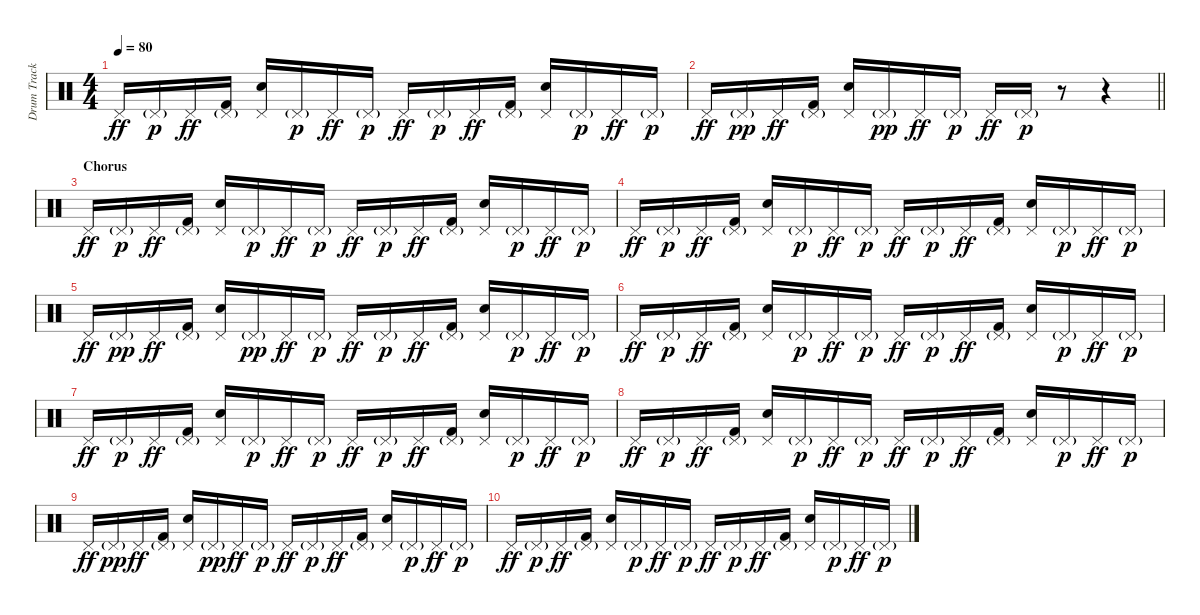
\track ("Drum Track" "Drum Track") {instrument percussion}
\staff {score}
\articulation defaults
\ts (4 4)
\tempo 80
\clef neutral
\ks c "Pedal Hi-Hat (hit)".16{dy ff} "Pedal Hi-Hat (hit)"{g}.16{dy p} "Pedal Hi-Hat (hit)".16{dy ff}
("Pedal Hi-Hat (hit)"{g} "Kick (hit) 2").16 ("Pedal Hi-Hat (hit)" "Electric Snare (hit)").16 "Pedal Hi-Hat (hit)"{g}.16{dy p} "Pedal Hi-Hat (hit)".16{dy ff} "Pedal Hi-Hat (hit)"{g}.16{dy p} "Pedal Hi-Hat (hit)".16{dy ff} "Pedal Hi-Hat (hit)"{g}.16{dy p} "Pedal Hi-Hat (hit)".16{dy ff} ("Pedal Hi-Hat (hit)"{g} "Kick (hit) 2").16 ("Pedal Hi-Hat (hit)" "Electric Snare (hit)").16 "Pedal Hi-Hat (hit)"{g}.16{dy p} "Pedal Hi-Hat (hit)".16{dy ff} "Pedal Hi-Hat (hit)"{g}.16{dy p} |
\barLineRight lightlight "Pedal Hi-Hat (hit)".16{dy ff} "Pedal Hi-Hat (hit)"{g}.16{dy pp} "Pedal Hi-Hat (hit)".16{dy ff}
("Pedal Hi-Hat (hit)"{g} "Kick (hit) 2").16 ("Pedal Hi-Hat (hit)" "Electric Snare (hit)").16 "Pedal Hi-Hat (hit)"{g}.16{dy pp} "Pedal Hi-Hat (hit)".16{dy ff} "Pedal Hi-Hat (hit)"{g}.16{dy p} "Pedal Hi-Hat (hit)".16{dy ff} "Pedal Hi-Hat (hit)"{g}.16{dy p} r.8 r.4 |
\section ("" "Chorus")
"Pedal Hi-Hat (hit)".16{dy ff} "Pedal Hi-Hat (hit)"{g}.16{dy p} "Pedal Hi-Hat (hit)".16{dy ff} ("Pedal Hi-Hat (hit)"{g} "Kick (hit) 2").16 ("Pedal Hi-Hat (hit)" "Electric Snare (hit)").16 "Pedal Hi-Hat (hit)"{g}.16{dy p} "Pedal Hi-Hat (hit)".16{dy ff} "Pedal Hi-Hat (hit)"{g}.16{dy p} "Pedal Hi-Hat (hit)".16{dy ff} "Pedal Hi-Hat (hit)"{g}.16{dy p} "Pedal Hi-Hat (hit)".16{dy ff} ("Pedal Hi-Hat (hit)"{g} "Kick (hit) 2").16 ("Pedal Hi-Hat (hit)" "Electric Snare (hit)").16 "Pedal Hi-Hat (hit)"{g}.16{dy p} "Pedal Hi-Hat (hit)".16{dy ff} "Pedal Hi-Hat (hit)"{g}.16{dy p} |
"Pedal Hi-Hat (hit)".16{dy ff} "Pedal Hi-Hat (hit)"{g}.16{dy p} "Pedal Hi-Hat (hit)".16{dy ff} ("Pedal Hi-Hat (hit)"{g} "Kick (hit) 2").16 ("Pedal Hi-Hat (hit)" "Electric Snare (hit)").16 "Pedal Hi-Hat (hit)"{g}.16{dy p} "Pedal Hi-Hat (hit)".16{dy ff} "Pedal Hi-Hat (hit)"{g}.16{dy p} "Pedal Hi-Hat (hit)".16{dy ff} "Pedal Hi-Hat (hit)"{g}.16{dy p} "Pedal Hi-Hat (hit)".16{dy ff} ("Pedal Hi-Hat (hit)"{g} "Kick (hit) 2").16 ("Pedal Hi-Hat (hit)" "Electric Snare (hit)").16 "Pedal Hi-Hat (hit)"{g}.16{dy p} "Pedal Hi-Hat (hit)".16{dy ff} "Pedal Hi-Hat (hit)"{g}.16{dy p} |
"Pedal Hi-Hat (hit)".16{dy ff} "Pedal Hi-Hat (hit)"{g}.16{dy pp} "Pedal Hi-Hat (hit)".16{dy ff} ("Pedal Hi-Hat (hit)"{g} "Kick (hit) 2").16 ("Pedal Hi-Hat (hit)" "Electric Snare (hit)").16 "Pedal Hi-Hat (hit)"{g}.16{dy pp} "Pedal Hi-Hat (hit)".16{dy ff} "Pedal Hi-Hat (hit)"{g}.16{dy p} "Pedal Hi-Hat (hit)".16{dy ff} "Pedal Hi-Hat (hit)"{g}.16{dy p} "Pedal Hi-Hat (hit)".16{dy ff} ("Pedal Hi-Hat (hit)"{g} "Kick (hit) 2").16 ("Pedal Hi-Hat (hit)" "Electric Snare (hit)").16 "Pedal Hi-Hat (hit)"{g}.16{dy p} "Pedal Hi-Hat (hit)".16{dy ff} "Pedal Hi-Hat (hit)"{g}.16{dy p} |
"Pedal Hi-Hat (hit)".16{dy ff} "Pedal Hi-Hat (hit)"{g}.16{dy p} "Pedal Hi-Hat (hit)".16{dy ff} ("Pedal Hi-Hat (hit)"{g} "Kick (hit) 2").16 ("Pedal Hi-Hat (hit)" "Electric Snare (hit)").16 "Pedal Hi-Hat (hit)"{g}.16{dy p} "Pedal Hi-Hat (hit)".16{dy ff} "Pedal Hi-Hat (hit)"{g}.16{dy p} "Pedal Hi-Hat (hit)".16{dy ff} "Pedal Hi-Hat (hit)"{g}.16{dy p} "Pedal Hi-Hat (hit)".16{dy ff} ("Pedal Hi-Hat (hit)"{g} "Kick (hit) 2").16 ("Pedal Hi-Hat (hit)" "Electric Snare (hit)").16 "Pedal Hi-Hat (hit)"{g}.16{dy p} "Pedal Hi-Hat (hit)".16{dy ff} "Pedal Hi-Hat (hit)"{g}.16{dy p} |
"Pedal Hi-Hat (hit)".16{dy ff} "Pedal Hi-Hat (hit)"{g}.16{dy p} "Pedal Hi-Hat (hit)".16{dy ff} ("Pedal Hi-Hat (hit)"{g} "Kick (hit) 2").16 ("Pedal Hi-Hat (hit)" "Electric Snare (hit)").16 "Pedal Hi-Hat (hit)"{g}.16{dy p} "Pedal Hi-Hat (hit)".16{dy ff} "Pedal Hi-Hat (hit)"{g}.16{dy p} "Pedal Hi-Hat (hit)".16{dy ff} "Pedal Hi-Hat (hit)"{g}.16{dy p} "Pedal Hi-Hat (hit)".16{dy ff} ("Pedal Hi-Hat (hit)"{g} "Kick (hit) 2").16 ("Pedal Hi-Hat (hit)" "Electric Snare (hit)").16 "Pedal Hi-Hat (hit)"{g}.16{dy p} "Pedal Hi-Hat (hit)".16{dy ff} "Pedal Hi-Hat (hit)"{g}.16{dy p} |
"Pedal Hi-Hat (hit)".16{dy ff} "Pedal Hi-Hat (hit)"{g}.16{dy p} "Pedal Hi-Hat (hit)".16{dy ff} ("Pedal Hi-Hat (hit)"{g} "Kick (hit) 2").16 ("Pedal Hi-Hat (hit)" "Electric Snare (hit)").16 "Pedal Hi-Hat (hit)"{g}.16{dy p} "Pedal Hi-Hat (hit)".16{dy ff} "Pedal Hi-Hat (hit)"{g}.16{dy p} "Pedal Hi-Hat (hit)".16{dy ff} "Pedal Hi-Hat (hit)"{g}.16{dy p} "Pedal Hi-Hat (hit)".16{dy ff} ("Pedal Hi-Hat (hit)"{g} "Kick (hit) 2").16 ("Pedal Hi-Hat (hit)" "Electric Snare (hit)").16 "Pedal Hi-Hat (hit)"{g}.16{dy p} "Pedal Hi-Hat (hit)".16{dy ff} "Pedal Hi-Hat (hit)"{g}.16{dy p} |
"Pedal Hi-Hat (hit)".16{dy ff} "Pedal Hi-Hat (hit)"{g}.16{dy pp} "Pedal Hi-Hat (hit)".16{dy ff} ("Pedal Hi-Hat (hit)"{g} "Kick (hit) 2").16 ("Pedal Hi-Hat (hit)" "Electric Snare (hit)").16 "Pedal Hi-Hat (hit)"{g}.16{dy pp} "Pedal Hi-Hat (hit)".16{dy ff} "Pedal Hi-Hat (hit)"{g}.16{dy p} "Pedal Hi-Hat (hit)".16{dy ff} "Pedal Hi-Hat (hit)"{g}.16{dy p} "Pedal Hi-Hat (hit)".16{dy ff} ("Pedal Hi-Hat (hit)"{g} "Kick (hit) 2").16 ("Pedal Hi-Hat (hit)" "Electric Snare (hit)").16 "Pedal Hi-Hat (hit)"{g}.16{dy p} "Pedal Hi-Hat (hit)".16{dy ff} "Pedal Hi-Hat (hit)"{g}.16{dy p} |
"Pedal Hi-Hat (hit)".16{dy ff} "Pedal Hi-Hat (hit)"{g}.16{dy p} "Pedal Hi-Hat (hit)".16{dy ff} ("Pedal Hi-Hat (hit)"{g} "Kick (hit) 2").16 ("Pedal Hi-Hat (hit)" "Electric Snare (hit)").16 "Pedal Hi-Hat (hit)"{g}.16{dy p} "Pedal Hi-Hat (hit)".16{dy ff} "Pedal Hi-Hat (hit)"{g}.16{dy p} "Pedal Hi-Hat (hit)".16{dy ff} "Pedal Hi-Hat (hit)"{g}.16{dy p} "Pedal Hi-Hat (hit)".16{dy ff} ("Pedal Hi-Hat (hit)"{g} "Kick (hit) 2").16 ("Pedal Hi-Hat (hit)" "Electric Snare (hit)").16 "Pedal Hi-Hat (hit)"{g}.16{dy p} "Pedal Hi-Hat (hit)".16{dy ff} "Pedal Hi-Hat (hit)"{g}.16{dy p}
